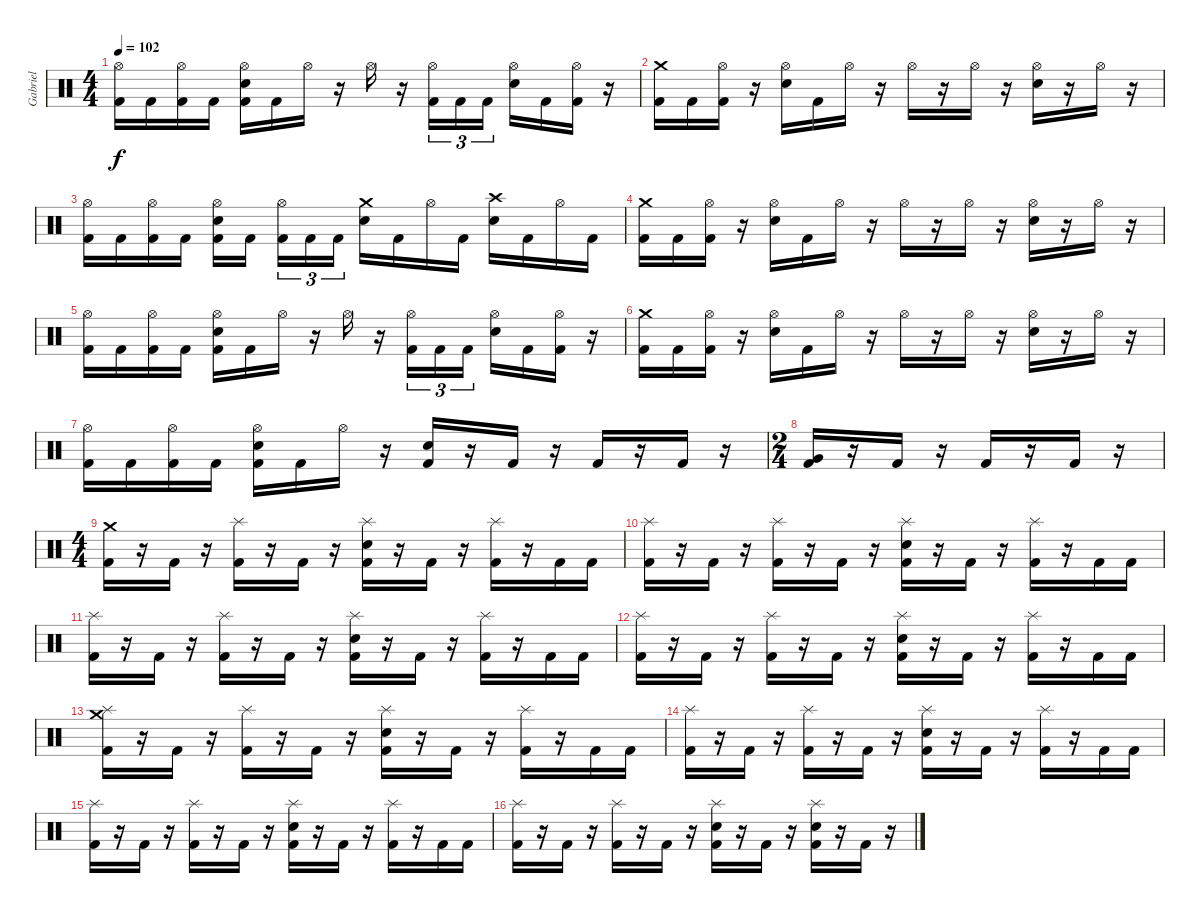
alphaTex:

\track ("Gabriel" "Gabriel") {instrument percussion}
\staff {score}
\articulation defaults
\ts (4 4)
\tempo 102
\clef neutral
\ks c
("Hi-Hat (open)" "Kick (hit) 2").16{dy f} "Kick (hit) 2".16 ("Hi-Hat (open)" "Kick (hit) 2").16 "Kick (hit) 2".16 ("Hi-Hat (open)" "Electric Snare (hit)" "Kick (hit) 2").16 "Kick (hit) 2".16 "Hi-Hat (open)".16 r.16 "Hi-Hat (open)".16 r.16 ("Hi-Hat (open)" "Kick (hit) 2").16{tu (3 2)} "Kick (hit) 2".16{tu (3 2)} "Kick (hit) 2".16{tu (3 2)} ("Hi-Hat (open)" "Electric Snare (hit)").16 "Kick (hit) 2".16 ("Hi-Hat (open)" "Kick (hit) 2").16 r.16 |
("Crash medium (hit)" "Kick (hit) 2").16 "Kick (hit) 2".16 ("Hi-Hat (open)" "Kick (hit) 2").16 r.16 ("Hi-Hat (open)" "Electric Snare (hit)").16 "Kick (hit) 2".16 "Hi-Hat (open)".16 r.16 "Hi-Hat (open)".16 r.16 "Hi-Hat (open)".16 r.16 ("Hi-Hat (open)" "Electric Snare (hit)").16 r.16 "Hi-Hat (open)".16 r.16 |
("Hi-Hat (open)" "Kick (hit) 2").16 "Kick (hit) 2".16 ("Hi-Hat (open)" "Kick (hit) 2").16 "Kick (hit) 2".16 ("Hi-Hat (open)" "Electric Snare (hit)" "Kick (hit) 2").16 "Kick (hit) 2".16{beam splitsecondary} ("Hi-Hat (open)" "Kick (hit) 2").16{tu (3 2)} "Kick (hit) 2".16{tu (3 2)} "Kick (hit) 2".16{tu (3 2)} ("Crash medium (hit)" "Electric Snare (hit)").16 "Kick (hit) 2".16 "Hi-Hat (open)".16 "Kick (hit) 2".16 ("Crash high (hit)" "Electric Snare (hit)").16 "Kick (hit) 2".16 "Hi-Hat (open)".16 "Kick (hit) 2".16 |
("Crash medium (hit)" "Kick (hit) 2").16 "Kick (hit) 2".16 ("Hi-Hat (open)" "Kick (hit) 2").16 r.16 ("Hi-Hat (open)" "Electric Snare (hit)").16 "Kick (hit) 2".16 "Hi-Hat (open)".16 r.16 "Hi-Hat (open)".16 r.16 "Hi-Hat (open)".16 r.16 ("Hi-Hat (open)" "Electric Snare (hit)").16 r.16 "Hi-Hat (open)".16 r.16 |
("Hi-Hat (open)" "Kick (hit) 2").16 "Kick (hit) 2".16 ("Hi-Hat (open)" "Kick (hit) 2").16 "Kick (hit) 2".16 ("Hi-Hat (open)" "Electric Snare (hit)" "Kick (hit) 2").16 "Kick (hit) 2".16 "Hi-Hat (open)".16 r.16 "Hi-Hat (open)".16 r.16 ("Hi-Hat (open)" "Kick (hit) 2").16{tu (3 2)} "Kick (hit) 2".16{tu (3 2)} "Kick (hit) 2".16{tu (3 2)} ("Hi-Hat (open)" "Electric Snare (hit)").16 "Kick (hit) 2".16 ("Hi-Hat (open)" "Kick (hit) 2").16 r.16 |
("Crash medium (hit)" "Kick (hit) 2").16 "Kick (hit) 2".16 ("Hi-Hat (open)" "Kick (hit) 2").16 r.16 ("Hi-Hat (open)" "Electric Snare (hit)").16 "Kick (hit) 2".16 "Hi-Hat (open)".16 r.16 "Hi-Hat (open)".16 r.16 "Hi-Hat (open)".16 r.16 ("Hi-Hat (open)" "Electric Snare (hit)").16 r.16 "Hi-Hat (open)".16 r.16 |
("Hi-Hat (open)" "Kick (hit) 2").16 "Kick (hit) 2".16 ("Hi-Hat (open)" "Kick (hit) 2").16 "Kick (hit) 2".16 ("Hi-Hat (open)" "Electric Snare (hit)" "Kick (hit) 2").16 "Kick (hit) 2".16 "Hi-Hat (open)".16 r.16 ("Electric Snare (hit)" "Kick (hit) 2").16 r.16 "Kick (hit) 2".16 r.16 "Kick (hit) 2".16 r.16 "Kick (hit) 2".16 r.16 |
\ts (2 4)
("Very Low Tom (hit)" "Kick (hit) 2").16 r.16 "Kick (hit) 2".16 r.16 "Kick (hit) 2".16 r.16 "Kick (hit) 2".16 r.16 |
\ts (4 4)
("Crash medium (hit)" "Kick (hit) 2").16 r.16 "Kick (hit) 2".16 r.16 ("Splash (hit)" "Kick (hit) 2").16 r.16 "Kick (hit) 2".16 r.16 ("Splash (hit)" "Electric Snare (hit)" "Kick (hit) 2").16 r.16 "Kick (hit) 2".16 r.16 ("Splash (hit)" "Kick (hit) 2").16 r.16 "Kick (hit) 2".16 "Kick (hit) 2".16 |
("Splash (hit)" "Kick (hit) 2").16 r.16 "Kick (hit) 2".16 r.16 ("Splash (hit)" "Kick (hit) 2").16 r.16 "Kick (hit) 2".16 r.16 ("Splash (hit)" "Electric Snare (hit)" "Kick (hit) 2").16 r.16 "Kick (hit) 2".16 r.16 ("Splash (hit)" "Kick (hit) 2").16 r.16 "Kick (hit) 2".16 "Kick (hit) 2".16 |
("Splash (hit)" "Kick (hit) 2").16 r.16 "Kick (hit) 2".16 r.16 ("Splash (hit)" "Kick (hit) 2").16 r.16 "Kick (hit) 2".16 r.16 ("Splash (hit)" "Electric Snare (hit)" "Kick (hit) 2").16 r.16 "Kick (hit) 2".16 r.16 ("Splash (hit)" "Kick (hit) 2").16 r.16 "Kick (hit) 2".16 "Kick (hit) 2".16 |
("Splash (hit)" "Kick (hit) 2").16 r.16 "Kick (hit) 2".16 r.16 ("Splash (hit)" "Kick (hit) 2").16 r.16 "Kick (hit) 2".16 r.16 ("Splash (hit)" "Electric Snare (hit)" "Kick (hit) 2").16 r.16 "Kick (hit) 2".16 r.16 ("Splash (hit)" "Kick (hit) 2").16 r.16 "Kick (hit) 2".16 "Kick (hit) 2".16 |
("Crash medium (hit)" "Splash (hit)" "Kick (hit) 2").16 r.16 "Kick (hit) 2".16 r.16 ("Splash (hit)" "Kick (hit) 2").16 r.16 "Kick (hit) 2".16 r.16 ("Splash (hit)" "Electric Snare (hit)" "Kick (hit) 2").16 r.16 "Kick (hit) 2".16 r.16 ("Splash (hit)" "Kick (hit) 2").16 r.16 "Kick (hit) 2".16 "Kick (hit) 2".16 |
("Splash (hit)" "Kick (hit) 2").16 r.16 "Kick (hit) 2".16 r.16 ("Splash (hit)" "Kick (hit) 2").16 r.16 "Kick (hit) 2".16 r.16 ("Splash (hit)" "Electric Snare (hit)" "Kick (hit) 2").16 r.16 "Kick (hit) 2".16 r.16 ("Splash (hit)" "Kick (hit) 2").16 r.16 "Kick (hit) 2".16 "Kick (hit) 2".16 |
("Splash (hit)" "Kick (hit) 2").16 r.16 "Kick (hit) 2".16 r.16 ("Splash (hit)" "Kick (hit) 2").16 r.16 "Kick (hit) 2".16 r.16 ("Splash (hit)" "Electric Snare (hit)" "Kick (hit) 2").16 r.16 "Kick (hit) 2".16 r.16 ("Splash (hit)" "Kick (hit) 2").16 r.16 "Kick (hit) 2".16 "Kick (hit) 2".16 |
("Splash (hit)" "Kick (hit) 2").16 r.16 "Kick (hit) 2".16 r.16 ("Splash (hit)" "Kick (hit) 2").16 r.16 "Kick (hit) 2".16 r.16 ("Splash (hit)" "Electric Snare (hit)" "Kick (hit) 2").16 r.16 "Kick (hit) 2".16 r.16 ("Splash (hit)" "Electric Snare (hit)" "Kick (hit) 2").16 r.16 "Kick (hit) 2".16 r.16
